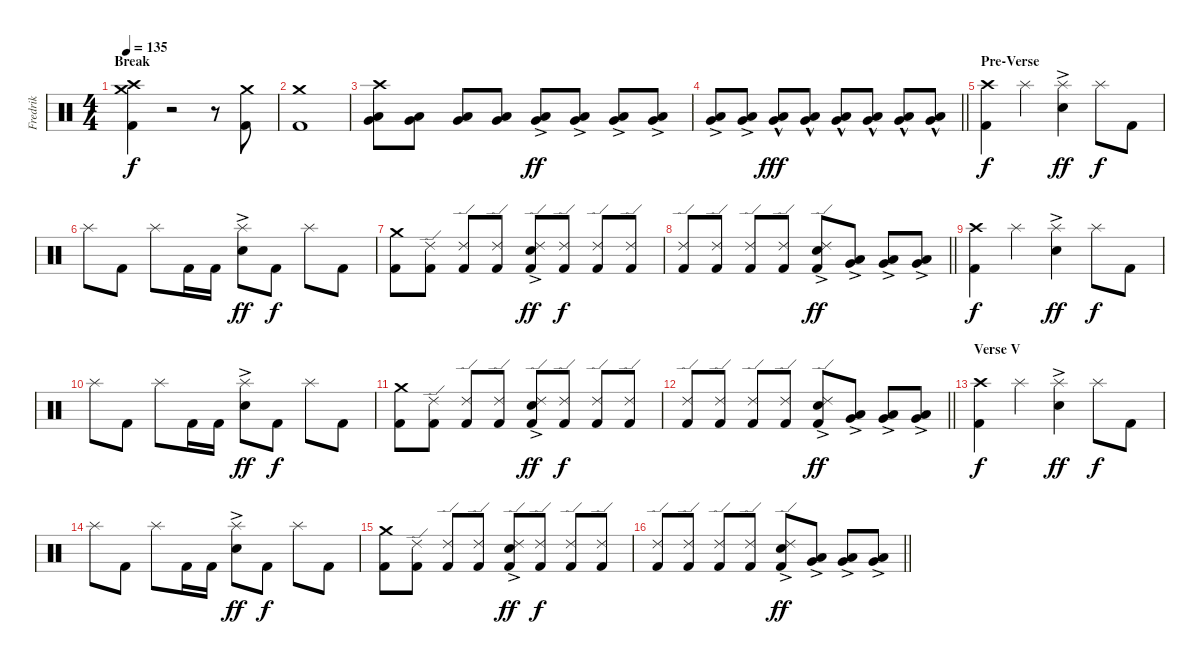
\track ("Fredrik" "Fredrik") {instrument percussion}
\staff {score}
\articulation defaults
\ts (4 4)
\section ("" "Break")
\tempo 135
\clef neutral
\ks c
("Kick (hit) 2" "Crash medium (hit)" "Crash high (hit)").4{dy f} r.2 r.8 ("Kick (hit) 2" "Crash medium (hit)").8 |
("Kick (hit) 2" "Crash medium (hit)").1 |
("Very Low Tom (hit)" "Low Floor Tom (hit)" "Crash high (hit)").8 ("Very Low Tom (hit)" "Low Floor Tom (hit)").8 ("Very Low Tom (hit)" "Low Floor Tom (hit)").8 ("Very Low Tom (hit)" "Low Floor Tom (hit)").8 ("Very Low Tom (hit)" "Low Floor Tom (hit)"{ac}).8{dy ff} ("Very Low Tom (hit)" "Low Floor Tom (hit)"{ac}).8 ("Very Low Tom (hit)" "Low Floor Tom (hit)"{ac}).8 ("Very Low Tom (hit)" "Low Floor Tom (hit)"{ac}).8 |
\barLineRight lightlight
("Very Low Tom (hit)" "Low Floor Tom (hit)"{ac}).8 ("Very Low Tom (hit)" "Low Floor Tom (hit)"{ac}).8 ("Very Low Tom (hit)" "Low Floor Tom (hit)"{hac}).8{dy fff} ("Very Low Tom (hit)" "Low Floor Tom (hit)"{hac}).8 ("Very Low Tom (hit)" "Low Floor Tom (hit)"{hac}).8 ("Very Low Tom (hit)"{hac} "Low Floor Tom (hit)"{hac}).8 ("Very Low Tom (hit)"{hac} "Low Floor Tom (hit)"{hac}).8 ("Very Low Tom (hit)"{hac} "Low Floor Tom (hit)"{hac}).8 |
\section ("" "Pre-Verse")
("Kick (hit) 2" "Crash high (hit)").4{dy f} "Splash (hit)".4 ("Snare (hit) 2"{ac} "Splash (hit)").4{dy ff} "Splash (hit)".8{dy f} "Kick (hit) 2".8 |
"Splash (hit)".8 "Kick (hit) 2".8 "Splash (hit)".8 "Kick (hit) 2".16 "Kick (hit) 2".16 ("Snare (hit) 2"{ac} "Splash (hit)").8{dy ff} "Kick (hit) 2".8{dy f} "Splash (hit)".8 "Kick (hit) 2".8 |
("Kick (hit) 2" "Crash medium (hit)").8 ("Kick (hit) 2" "Ride (edge) 2").8 ("Kick (hit) 2" "Ride (edge) 2").8 ("Kick (hit) 2" "Ride (edge) 2").8 ("Kick (hit) 2" "Snare (hit) 2"{ac} "Ride (edge) 2").8{dy ff} ("Kick (hit) 2" "Ride (edge) 2").8{dy f} ("Kick (hit) 2" "Ride (edge) 2").8 ("Kick (hit) 2" "Ride (edge) 2").8 |
\barLineRight lightlight
("Kick (hit) 2" "Ride (edge) 2").8 ("Kick (hit) 2" "Ride (edge) 2").8 ("Kick (hit) 2" "Ride (edge) 2").8 ("Kick (hit) 2" "Ride (edge) 2").8 ("Kick (hit) 2" "Snare (hit) 2"{ac} "Ride (edge) 2").8{dy ff} ("Very Low Tom (hit)"{ac} "Low Floor Tom (hit)"{ac}).8 ("Very Low Tom (hit)"{ac} "Low Floor Tom (hit)"{ac}).8 ("Very Low Tom (hit)"{ac} "Low Floor Tom (hit)"{ac}).8 |
\section ("" "")
("Kick (hit) 2" "Crash high (hit)").4{dy f} "Splash (hit)".4 ("Snare (hit) 2"{ac} "Splash (hit)").4{dy ff} "Splash (hit)".8{dy f} "Kick (hit) 2".8 |
"Splash (hit)".8 "Kick (hit) 2".8 "Splash (hit)".8 "Kick (hit) 2".16 "Kick (hit) 2".16 ("Snare (hit) 2"{ac} "Splash (hit)").8{dy ff} "Kick (hit) 2".8{dy f} "Splash (hit)".8 "Kick (hit) 2".8 |
("Kick (hit) 2" "Crash medium (hit)").8 ("Kick (hit) 2" "Ride (edge) 2").8 ("Kick (hit) 2" "Ride (edge) 2").8 ("Kick (hit) 2" "Ride (edge) 2").8 ("Kick (hit) 2" "Snare (hit) 2"{ac} "Ride (edge) 2").8{dy ff} ("Kick (hit) 2" "Ride (edge) 2").8{dy f} ("Kick (hit) 2" "Ride (edge) 2").8 ("Kick (hit) 2" "Ride (edge) 2").8 |
\barLineRight lightlight
("Kick (hit) 2" "Ride (edge) 2").8 ("Kick (hit) 2" "Ride (edge) 2").8 ("Kick (hit) 2" "Ride (edge) 2").8 ("Kick (hit) 2" "Ride (edge) 2").8 ("Kick (hit) 2" "Snare (hit) 2"{ac} "Ride (edge) 2").8{dy ff} ("Very Low Tom (hit)"{ac} "Low Floor Tom (hit)"{ac}).8 ("Very Low Tom (hit)"{ac} "Low Floor Tom (hit)"{ac}).8 ("Very Low Tom (hit)"{ac} "Low Floor Tom (hit)"{ac}).8 |
\section ("" "Verse V")
("Kick (hit) 2" "Crash high (hit)").4{dy f} "Splash (hit)".4 ("Snare (hit) 2"{ac} "Splash (hit)").4{dy ff} "Splash (hit)".8{dy f} "Kick (hit) 2".8 |
"Splash (hit)".8 "Kick (hit) 2".8 "Splash (hit)".8 "Kick (hit) 2".16 "Kick (hit) 2".16 ("Snare (hit) 2"{ac} "Splash (hit)").8{dy ff} "Kick (hit) 2".8{dy f} "Splash (hit)".8 "Kick (hit) 2".8 |
("Kick (hit) 2" "Crash medium (hit)").8 ("Kick (hit) 2" "Ride (edge) 2").8 ("Kick (hit) 2" "Ride (edge) 2").8 ("Kick (hit) 2" "Ride (edge) 2").8 ("Kick (hit) 2" "Snare (hit) 2"{ac} "Ride (edge) 2").8{dy ff} ("Kick (hit) 2" "Ride (edge) 2").8{dy f} ("Kick (hit) 2" "Ride (edge) 2").8 ("Kick (hit) 2" "Ride (edge) 2").8 |
\barLineRight lightlight
("Kick (hit) 2" "Ride (edge) 2").8 ("Kick (hit) 2" "Ride (edge) 2").8 ("Kick (hit) 2" "Ride (edge) 2").8 ("Kick (hit) 2" "Ride (edge) 2").8 ("Kick (hit) 2" "Snare (hit) 2"{ac} "Ride (edge) 2").8{dy ff} ("Very Low Tom (hit)"{ac} "Low Floor Tom (hit)"{ac}).8 ("Very Low Tom (hit)"{ac} "Low Floor Tom (hit)"{ac}).8 ("Very Low Tom (hit)"{ac} "Low Floor Tom (hit)"{ac}).8
